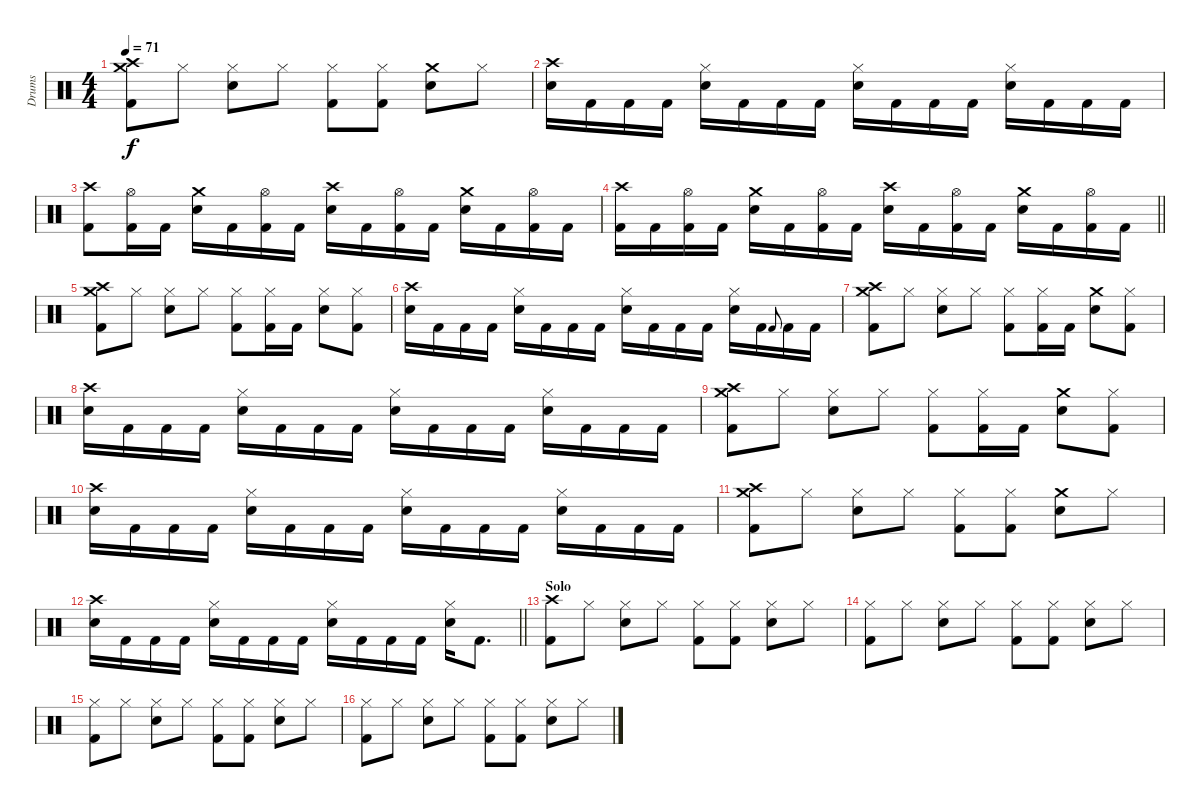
\track ("Drums" "Drums") {instrument percussion}
\staff {score}
\articulation defaults
\ts (4 4)
\tempo 71
\clef neutral
\ks c
("Crash medium (hit)" "Crash high (hit)" "Kick (hit) 2").8{dy f} "Hi-Hat (closed)".8 ("Hi-Hat (closed)" "Snare (hit) 2").8 "Hi-Hat (closed)".8 ("Hi-Hat (closed)" "Kick (hit) 2").8 ("Hi-Hat (closed)" "Kick (hit) 2").8 ("Crash medium (hit)" "Snare (hit) 2").8 "Hi-Hat (closed)".8 |
("Crash high (hit)" "Snare (hit) 2").16 "Kick (hit) 2".16 "Kick (hit) 2".16 "Kick (hit) 2".16 ("Hi-Hat (closed)" "Snare (hit) 2").16 "Kick (hit) 2".16 "Kick (hit) 2".16 "Kick (hit) 2".16 ("Hi-Hat (closed)" "Snare (hit) 2").16 "Kick (hit) 2".16 "Kick (hit) 2".16 "Kick (hit) 2".16 ("Hi-Hat (closed)" "Snare (hit) 2").16 "Kick (hit) 2".16 "Kick (hit) 2".16 "Kick (hit) 2".16 |
("Crash high (hit)" "Kick (hit) 2").8 ("Hi-Hat (open)" "Kick (hit) 2").16 "Kick (hit) 2".16 ("Crash medium (hit)" "Snare (hit) 2").16 "Kick (hit) 2".16 ("Hi-Hat (open)" "Kick (hit) 2").16 "Kick (hit) 2".16 ("Crash high (hit)" "Snare (hit) 2").16 "Kick (hit) 2".16 ("Hi-Hat (open)" "Kick (hit) 2").16 "Kick (hit) 2".16 ("Crash medium (hit)" "Snare (hit) 2").16 "Kick (hit) 2".16 ("Hi-Hat (open)" "Kick (hit) 2").16 "Kick (hit) 2".16 |
\barLineRight lightlight
("Crash high (hit)" "Kick (hit) 2").16 "Kick (hit) 2".16 ("Hi-Hat (open)" "Kick (hit) 2").16 "Kick (hit) 2".16 ("Crash medium (hit)" "Snare (hit) 2").16 "Kick (hit) 2".16 ("Hi-Hat (open)" "Kick (hit) 2").16 "Kick (hit) 2".16 ("Crash high (hit)" "Snare (hit) 2").16 "Kick (hit) 2".16 ("Hi-Hat (open)" "Kick (hit) 2").16 "Kick (hit) 2".16 ("Crash medium (hit)" "Snare (hit) 2").16 "Kick (hit) 2".16 ("Hi-Hat (open)" "Kick (hit) 2").16 "Kick (hit) 2".16 |
("Crash medium (hit)" "Crash high (hit)" "Kick (hit) 2").8 "Hi-Hat (closed)".8 ("Hi-Hat (closed)" "Snare (hit) 2").8 "Hi-Hat (closed)".8 ("Hi-Hat (closed)" "Kick (hit) 2").8 ("Hi-Hat (closed)" "Kick (hit) 2").16 "Kick (hit) 2".16 ("Hi-Hat (closed)" "Snare (hit) 2").8 ("Hi-Hat (closed)" "Kick (hit) 2").8 |
("Crash high (hit)" "Snare (hit) 2").16 "Kick (hit) 2".16 "Kick (hit) 2".16 "Kick (hit) 2".16 ("Hi-Hat (closed)" "Snare (hit) 2").16 "Kick (hit) 2".16 "Kick (hit) 2".16 "Kick (hit) 2".16 ("Hi-Hat (closed)" "Snare (hit) 2").16 "Kick (hit) 2".16 "Kick (hit) 2".16 "Kick (hit) 2".16 ("Hi-Hat (closed)" "Snare (hit) 2").16 "Kick (hit) 2".16 "Kick (hit) 2".8{gr onbeat} "Kick (hit) 2".16 "Kick (hit) 2".16 |
("Crash medium (hit)" "Crash high (hit)" "Kick (hit) 2").8 "Hi-Hat (closed)".8 ("Hi-Hat (closed)" "Snare (hit) 2").8 "Hi-Hat (closed)".8 ("Hi-Hat (closed)" "Kick (hit) 2").8 ("Hi-Hat (closed)" "Kick (hit) 2").16 "Kick (hit) 2".16 ("Crash medium (hit)" "Snare (hit) 2").8 ("Hi-Hat (closed)" "Kick (hit) 2").8 |
("Crash high (hit)" "Snare (hit) 2").16 "Kick (hit) 2".16 "Kick (hit) 2".16 "Kick (hit) 2".16 ("Hi-Hat (closed)" "Snare (hit) 2").16 "Kick (hit) 2".16 "Kick (hit) 2".16 "Kick (hit) 2".16 ("Hi-Hat (closed)" "Snare (hit) 2").16 "Kick (hit) 2".16 "Kick (hit) 2".16 "Kick (hit) 2".16 ("Hi-Hat (closed)" "Snare (hit) 2").16 "Kick (hit) 2".16 "Kick (hit) 2".16 "Kick (hit) 2".16 |
("Crash medium (hit)" "Crash high (hit)" "Kick (hit) 2").8 "Hi-Hat (closed)".8 ("Hi-Hat (closed)" "Snare (hit) 2").8 "Hi-Hat (closed)".8 ("Hi-Hat (closed)" "Kick (hit) 2").8 ("Hi-Hat (closed)" "Kick (hit) 2").16 "Kick (hit) 2".16 ("Crash medium (hit)" "Snare (hit) 2").8 ("Hi-Hat (closed)" "Kick (hit) 2").8 |
("Crash high (hit)" "Snare (hit) 2").16 "Kick (hit) 2".16 "Kick (hit) 2".16 "Kick (hit) 2".16 ("Hi-Hat (closed)" "Snare (hit) 2").16 "Kick (hit) 2".16 "Kick (hit) 2".16 "Kick (hit) 2".16 ("Hi-Hat (closed)" "Snare (hit) 2").16 "Kick (hit) 2".16 "Kick (hit) 2".16 "Kick (hit) 2".16 ("Hi-Hat (closed)" "Snare (hit) 2").16 "Kick (hit) 2".16 "Kick (hit) 2".16 "Kick (hit) 2".16 |
("Crash medium (hit)" "Crash high (hit)" "Kick (hit) 2").8 "Hi-Hat (closed)".8 ("Hi-Hat (closed)" "Snare (hit) 2").8 "Hi-Hat (closed)".8 ("Hi-Hat (closed)" "Kick (hit) 2").8 ("Hi-Hat (closed)" "Kick (hit) 2").8 ("Crash medium (hit)" "Snare (hit) 2").8 "Hi-Hat (closed)".8 |
\barLineRight lightlight
("Crash high (hit)" "Snare (hit) 2").16 "Kick (hit) 2".16 "Kick (hit) 2".16 "Kick (hit) 2".16 ("Hi-Hat (closed)" "Snare (hit) 2").16 "Kick (hit) 2".16 "Kick (hit) 2".16 "Kick (hit) 2".16 ("Hi-Hat (closed)" "Snare (hit) 2").16 "Kick (hit) 2".16 "Kick (hit) 2".16 "Kick (hit) 2".16 ("Hi-Hat (closed)" "Snare (hit) 2").16 "Kick (hit) 2".8{d} |
\section ("" "Solo")
("Crash high (hit)" "Kick (hit) 2").8 "Hi-Hat (closed)".8 ("Hi-Hat (closed)" "Snare (hit) 2").8 "Hi-Hat (closed)".8 ("Hi-Hat (closed)" "Kick (hit) 2").8 ("Hi-Hat (closed)" "Kick (hit) 2").8 ("Hi-Hat (closed)" "Snare (hit) 2").8 "Hi-Hat (closed)".8 |
("Hi-Hat (closed)" "Kick (hit) 2").8 "Hi-Hat (closed)".8 ("Hi-Hat (closed)" "Snare (hit) 2").8 "Hi-Hat (closed)".8 ("Hi-Hat (closed)" "Kick (hit) 2").8 ("Hi-Hat (closed)" "Kick (hit) 2").8 ("Hi-Hat (closed)" "Snare (hit) 2").8 "Hi-Hat (closed)".8 |
("Hi-Hat (closed)" "Kick (hit) 2").8 "Hi-Hat (closed)".8 ("Hi-Hat (closed)" "Snare (hit) 2").8 "Hi-Hat (closed)".8 ("Hi-Hat (closed)" "Kick (hit) 2").8 ("Hi-Hat (closed)" "Kick (hit) 2").8 ("Hi-Hat (closed)" "Snare (hit) 2").8 "Hi-Hat (closed)".8 |
("Hi-Hat (closed)" "Kick (hit) 2").8 "Hi-Hat (closed)".8 ("Hi-Hat (closed)" "Snare (hit) 2").8 "Hi-Hat (closed)".8 ("Hi-Hat (closed)" "Kick (hit) 2").8 ("Hi-Hat (closed)" "Kick (hit) 2").8 ("Hi-Hat (closed)" "Snare (hit) 2").8 "Hi-Hat (closed)".8
